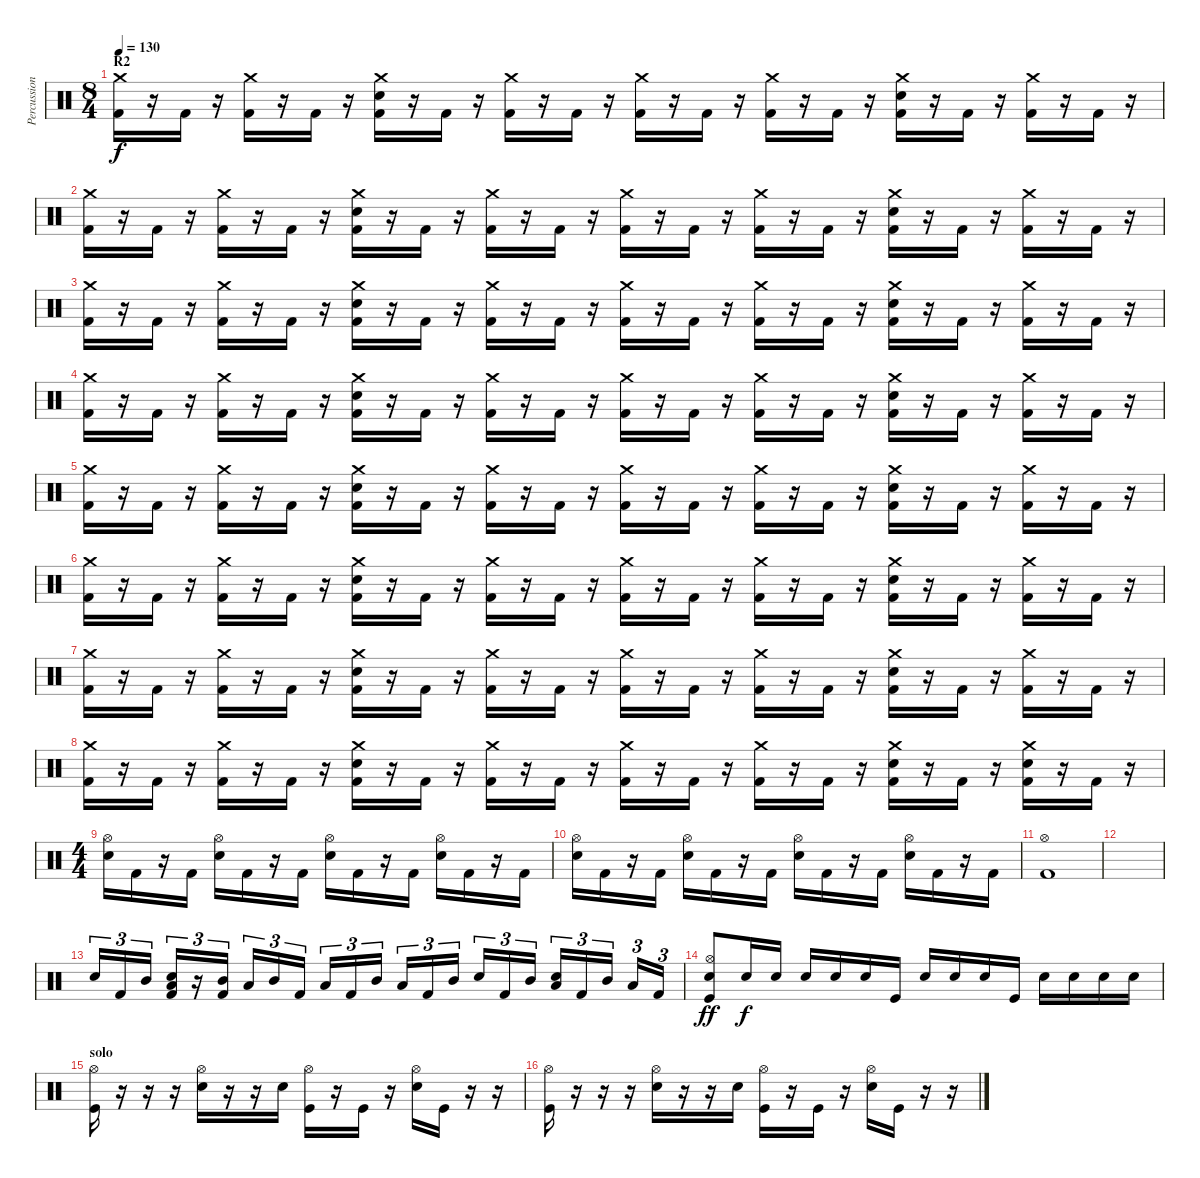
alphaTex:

\track ("Percussions" "Percussion") {instrument percussion}
\staff {score}
\articulation defaults
\ts (8 4)
\section ("" "R2")
\tempo 130
\clef neutral
\ks c
("Crash medium (hit)" "Kick (hit) 2").16{dy f} r.16 "Kick (hit) 2".16 r.16 ("Crash medium (hit)" "Kick (hit) 2").16 r.16 "Kick (hit) 2".16 r.16 ("Crash medium (hit)" "Snare (hit) 2" "Kick (hit) 2").16 r.16 "Kick (hit) 2".16 r.16 ("Crash medium (hit)" "Kick (hit) 2").16 r.16 "Kick (hit) 2".16 r.16 ("Crash medium (hit)" "Kick (hit) 2").16 r.16 "Kick (hit) 2".16 r.16 ("Crash medium (hit)" "Kick (hit) 2").16 r.16 "Kick (hit) 2".16 r.16 ("Crash medium (hit)" "Snare (hit) 2" "Kick (hit) 2").16 r.16 "Kick (hit) 2".16 r.16 ("Crash medium (hit)" "Kick (hit) 2").16 r.16 "Kick (hit) 2".16 r.16 |
("Crash medium (hit)" "Kick (hit) 2").16 r.16 "Kick (hit) 2".16 r.16 ("Crash medium (hit)" "Kick (hit) 2").16 r.16 "Kick (hit) 2".16 r.16 ("Crash medium (hit)" "Snare (hit) 2" "Kick (hit) 2").16 r.16 "Kick (hit) 2".16 r.16 ("Crash medium (hit)" "Kick (hit) 2").16 r.16 "Kick (hit) 2".16 r.16 ("Crash medium (hit)" "Kick (hit) 2").16 r.16 "Kick (hit) 2".16 r.16 ("Crash medium (hit)" "Kick (hit) 2").16 r.16 "Kick (hit) 2".16 r.16 ("Crash medium (hit)" "Snare (hit) 2" "Kick (hit) 2").16 r.16 "Kick (hit) 2".16 r.16 ("Crash medium (hit)" "Kick (hit) 2").16 r.16 "Kick (hit) 2".16 r.16 |
("Crash medium (hit)" "Kick (hit) 2").16 r.16 "Kick (hit) 2".16 r.16 ("Crash medium (hit)" "Kick (hit) 2").16 r.16 "Kick (hit) 2".16 r.16 ("Crash medium (hit)" "Snare (hit) 2" "Kick (hit) 2").16 r.16 "Kick (hit) 2".16 r.16 ("Crash medium (hit)" "Kick (hit) 2").16 r.16 "Kick (hit) 2".16 r.16 ("Crash medium (hit)" "Kick (hit) 2").16 r.16 "Kick (hit) 2".16 r.16 ("Crash medium (hit)" "Kick (hit) 2").16 r.16 "Kick (hit) 2".16 r.16 ("Crash medium (hit)" "Snare (hit) 2" "Kick (hit) 2").16 r.16 "Kick (hit) 2".16 r.16 ("Crash medium (hit)" "Kick (hit) 2").16 r.16 "Kick (hit) 2".16 r.16 |
("Crash medium (hit)" "Kick (hit) 2").16 r.16 "Kick (hit) 2".16 r.16 ("Crash medium (hit)" "Kick (hit) 2").16 r.16 "Kick (hit) 2".16 r.16 ("Crash medium (hit)" "Snare (hit) 2" "Kick (hit) 2").16 r.16 "Kick (hit) 2".16 r.16 ("Crash medium (hit)" "Kick (hit) 2").16 r.16 "Kick (hit) 2".16 r.16 ("Crash medium (hit)" "Kick (hit) 2").16 r.16 "Kick (hit) 2".16 r.16 ("Crash medium (hit)" "Kick (hit) 2").16 r.16 "Kick (hit) 2".16 r.16 ("Crash medium (hit)" "Snare (hit) 2" "Kick (hit) 2").16 r.16 "Kick (hit) 2".16 r.16 ("Crash medium (hit)" "Kick (hit) 2").16 r.16 "Kick (hit) 2".16 r.16 |
("Crash medium (hit)" "Kick (hit) 2").16 r.16 "Kick (hit) 2".16 r.16 ("Crash medium (hit)" "Kick (hit) 2").16 r.16 "Kick (hit) 2".16 r.16 ("Crash medium (hit)" "Snare (hit) 2" "Kick (hit) 2").16 r.16 "Kick (hit) 2".16 r.16 ("Crash medium (hit)" "Kick (hit) 2").16 r.16 "Kick (hit) 2".16 r.16 ("Crash medium (hit)" "Kick (hit) 2").16 r.16 "Kick (hit) 2".16 r.16 ("Crash medium (hit)" "Kick (hit) 2").16 r.16 "Kick (hit) 2".16 r.16 ("Crash medium (hit)" "Snare (hit) 2" "Kick (hit) 2").16 r.16 "Kick (hit) 2".16 r.16 ("Crash medium (hit)" "Kick (hit) 2").16 r.16 "Kick (hit) 2".16 r.16 |
("Crash medium (hit)" "Kick (hit) 2").16 r.16 "Kick (hit) 2".16 r.16 ("Crash medium (hit)" "Kick (hit) 2").16 r.16 "Kick (hit) 2".16 r.16 ("Crash medium (hit)" "Snare (hit) 2" "Kick (hit) 2").16 r.16 "Kick (hit) 2".16 r.16 ("Crash medium (hit)" "Kick (hit) 2").16 r.16 "Kick (hit) 2".16 r.16 ("Crash medium (hit)" "Kick (hit) 2").16 r.16 "Kick (hit) 2".16 r.16 ("Crash medium (hit)" "Kick (hit) 2").16 r.16 "Kick (hit) 2".16 r.16 ("Crash medium (hit)" "Snare (hit) 2" "Kick (hit) 2").16 r.16 "Kick (hit) 2".16 r.16 ("Crash medium (hit)" "Kick (hit) 2").16 r.16 "Kick (hit) 2".16 r.16 |
("Crash medium (hit)" "Kick (hit) 2").16 r.16 "Kick (hit) 2".16 r.16 ("Crash medium (hit)" "Kick (hit) 2").16 r.16 "Kick (hit) 2".16 r.16 ("Crash medium (hit)" "Snare (hit) 2" "Kick (hit) 2").16 r.16 "Kick (hit) 2".16 r.16 ("Crash medium (hit)" "Kick (hit) 2").16 r.16 "Kick (hit) 2".16 r.16 ("Crash medium (hit)" "Kick (hit) 2").16 r.16 "Kick (hit) 2".16 r.16 ("Crash medium (hit)" "Kick (hit) 2").16 r.16 "Kick (hit) 2".16 r.16 ("Crash medium (hit)" "Snare (hit) 2" "Kick (hit) 2").16 r.16 "Kick (hit) 2".16 r.16 ("Crash medium (hit)" "Kick (hit) 2").16 r.16 "Kick (hit) 2".16 r.16 |
("Crash medium (hit)" "Kick (hit) 2").16 r.16 "Kick (hit) 2".16 r.16 ("Crash medium (hit)" "Kick (hit) 2").16 r.16 "Kick (hit) 2".16 r.16 ("Crash medium (hit)" "Snare (hit) 2" "Kick (hit) 2").16 r.16 "Kick (hit) 2".16 r.16 ("Crash medium (hit)" "Kick (hit) 2").16 r.16 "Kick (hit) 2".16 r.16 ("Crash medium (hit)" "Kick (hit) 2").16 r.16 "Kick (hit) 2".16 r.16 ("Crash medium (hit)" "Kick (hit) 2").16 r.16 "Kick (hit) 2".16 r.16 ("Crash medium (hit)" "Snare (hit) 2" "Kick (hit) 2").16 r.16 "Kick (hit) 2".16 r.16 ("Crash medium (hit)" "Snare (hit) 2" "Kick (hit) 2").16 r.16 "Kick (hit) 2".16 r.16 |
\ts (4 4)
("Hi-Hat (open)" "Snare (hit) 2").16 "Kick (hit) 2".16 r.16 "Kick (hit) 2".16 ("Hi-Hat (open)" "Snare (hit) 2").16 "Kick (hit) 2".16 r.16 "Kick (hit) 2".16 ("Hi-Hat (open)" "Snare (hit) 2").16 "Kick (hit) 2".16 r.16 "Kick (hit) 2".16 ("Hi-Hat (open)" "Snare (hit) 2").16 "Kick (hit) 2".16 r.16 "Kick (hit) 2".16 |
("Hi-Hat (open)" "Snare (hit) 2").16 "Kick (hit) 2".16 r.16 "Kick (hit) 2".16 ("Hi-Hat (open)" "Snare (hit) 2").16 "Kick (hit) 2".16 r.16 "Kick (hit) 2".16 ("Hi-Hat (open)" "Snare (hit) 2").16 "Kick (hit) 2".16 r.16 "Kick (hit) 2".16 ("Hi-Hat (open)" "Snare (hit) 2").16 "Kick (hit) 2".16 r.16 "Kick (hit) 2".16 |
("Hi-Hat (open)" "Kick (hit) 2").1 |
|
"Snare (hit) 2".16{tu (3 2)} "Kick (hit) 2".16{tu (3 2)} "Mid Tom (hit)".16{tu (3 2)} ("Low Tom (hit)" "Snare (hit) 2" "Kick (hit) 2").16{tu (3 2)} r.16{tu (3 2)} ("Mid Tom (hit)" "Kick (hit) 2").16{tu (3 2)} "Low Tom (hit)".16{tu (3 2)} "Mid Tom (hit)".16{tu (3 2)} "Kick (hit) 2".16{tu (3 2)} "Low Tom (hit)".16{tu (3 2)} "Kick (hit) 2".16{tu (3 2)} "Mid Tom (hit)".16{tu (3 2)} "Low Tom (hit)".16{tu (3 2)} "Kick (hit) 2".16{tu (3 2)} "Mid Tom (hit)".16{tu (3 2)} "Snare (hit) 2".16{tu (3 2)} "Kick (hit) 2".16{tu (3 2)} "Mid Tom (hit)".16{tu (3 2)} ("Low Tom (hit)" "Snare (hit) 2").16{tu (3 2)} "Kick (hit) 2".16{tu (3 2)} "Mid Tom (hit)".16{tu (3 2)} "Low Tom (hit)".16{tu (3 2)} "Kick (hit) 2".16{tu (3 2)} |
("Hi-Hat (open)" "Snare (hit) 2" "Kick (hit)").8{dy ff} "Snare (hit) 2".16{dy f} "Snare (hit) 2".16 "Snare (hit) 2".16 "Snare (hit) 2".16 "Snare (hit) 2".16 "Kick (hit)".16 "Snare (hit) 2".16 "Snare (hit) 2".16 "Snare (hit) 2".16 "Kick (hit)".16 "Snare (hit) 2".16 "Snare (hit) 2".16 "Snare (hit) 2".16 "Snare (hit) 2".16 |
\section ("" "solo")
("Hi-Hat (open)" "Kick (hit)").16 r.16 r.16 r.16 ("Hi-Hat (open)" "Snare (hit) 2").16 r.16 r.16 "Snare (hit) 2".16 ("Hi-Hat (open)" "Kick (hit)").16 r.16 "Kick (hit)".16 r.16 ("Hi-Hat (open)" "Snare (hit) 2").16 "Kick (hit)".16 r.16 r.16 |
("Hi-Hat (open)" "Kick (hit)").16 r.16 r.16 r.16 ("Hi-Hat (open)" "Snare (hit) 2").16 r.16 r.16 "Snare (hit) 2".16 ("Hi-Hat (open)" "Kick (hit)").16 r.16 "Kick (hit)".16 r.16 ("Hi-Hat (open)" "Snare (hit) 2").16 "Kick (hit)".16 r.16 r.16
